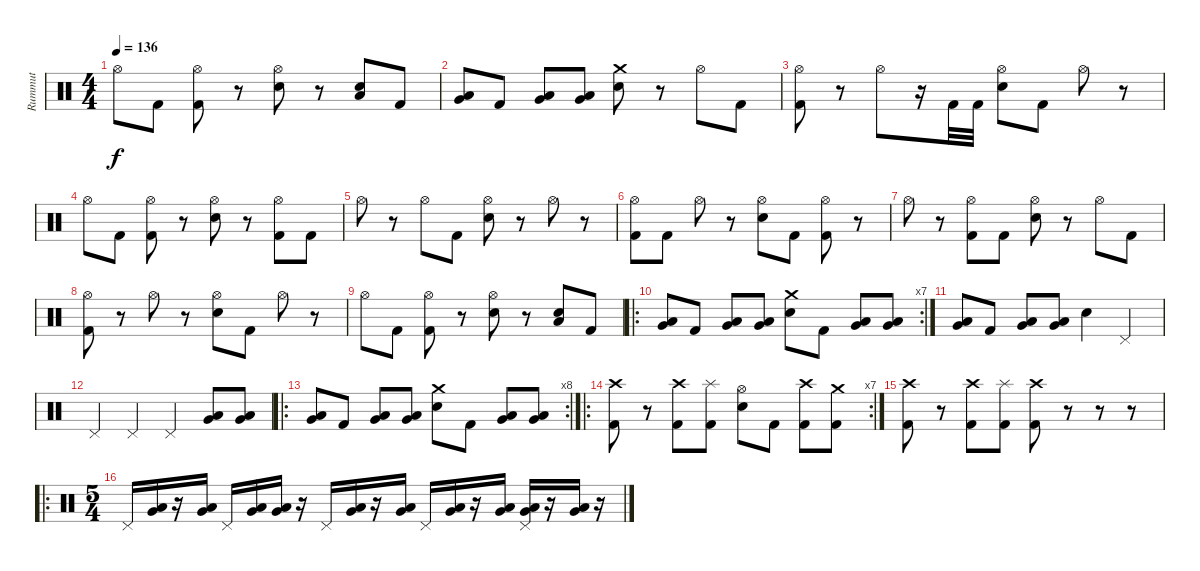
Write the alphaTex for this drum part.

\track ("Rummut" "Rummut") {instrument percussion}
\staff {score}
\articulation defaults
\ts (4 4)
\tempo 136
\clef neutral
\ks c "Hi-Hat (open)".8{dy f} "Kick (hit) 2".8
("Hi-Hat (open)" "Kick (hit) 2").8 r.8 ("Hi-Hat (open)" "Electric Snare (hit)").8 r.8 ("Low Floor Tom (hit)" "Electric Snare (hit)").8 "Kick (hit) 2".8 |
("Very Low Tom (hit)" "Low Floor Tom (hit)").8 "Kick (hit) 2".8 ("Very Low Tom (hit)" "Low Floor Tom (hit)").8 ("Very Low Tom (hit)" "Low Floor Tom (hit)").8 ("Crash medium (hit)" "Electric Snare (hit)").8 r.8 "Hi-Hat (open)".8 "Kick (hit) 2".8 |
("Hi-Hat (open)" "Kick (hit) 2").8 r.8 "Hi-Hat (open)".8 r.16 "Kick (hit) 2".32 "Kick (hit) 2".32 ("Hi-Hat (open)" "Electric Snare (hit)").8 "Kick (hit) 2".8 "Hi-Hat (open)".8 r.8 |
"Hi-Hat (open)".8 "Kick (hit) 2".8 ("Hi-Hat (open)" "Kick (hit) 2").8 r.8 ("Hi-Hat (open)" "Electric Snare (hit)").8 r.8 ("Hi-Hat (open)" "Kick (hit) 2").8 "Kick (hit) 2".8 |
"Hi-Hat (open)".8 r.8 "Hi-Hat (open)".8 "Kick (hit) 2".8 ("Hi-Hat (open)" "Electric Snare (hit)").8 r.8 "Hi-Hat (open)".8 r.8 |
("Hi-Hat (open)" "Kick (hit) 2").8 "Kick (hit) 2".8 "Hi-Hat (open)".8 r.8 ("Hi-Hat (open)" "Electric Snare (hit)").8 "Kick (hit) 2".8 ("Hi-Hat (open)" "Kick (hit) 2").8 r.8 |
"Hi-Hat (open)".8 r.8 ("Hi-Hat (open)" "Kick (hit) 2").8 "Kick (hit) 2".8 ("Hi-Hat (open)" "Electric Snare (hit)").8 r.8 "Hi-Hat (open)".8 "Kick (hit) 2".8 |
("Hi-Hat (open)" "Kick (hit) 2").8 r.8 "Hi-Hat (open)".8 r.8 ("Hi-Hat (open)" "Electric Snare (hit)").8 "Kick (hit) 2".8 "Hi-Hat (open)".8 r.8 |
"Hi-Hat (open)".8 "Kick (hit) 2".8 ("Hi-Hat (open)" "Kick (hit) 2").8 r.8 ("Hi-Hat (open)" "Electric Snare (hit)").8 r.8 ("Low Floor Tom (hit)" "Electric Snare (hit)").8 "Kick (hit) 2".8 |
\ro
\rc 7
("Very Low Tom (hit)" "Low Floor Tom (hit)").8 "Kick (hit) 2".8 ("Very Low Tom (hit)" "Low Floor Tom (hit)").8 ("Very Low Tom (hit)" "Low Floor Tom (hit)").8 ("Crash medium (hit)" "Electric Snare (hit)").8 "Kick (hit) 2".8 ("Very Low Tom (hit)" "Low Floor Tom (hit)").8 ("Very Low Tom (hit)" "Low Floor Tom (hit)").8 |
("Very Low Tom (hit)" "Low Floor Tom (hit)").8 "Kick (hit) 2".8 ("Very Low Tom (hit)" "Low Floor Tom (hit)").8 ("Very Low Tom (hit)" "Low Floor Tom (hit)").8 "Electric Snare (hit)".4 "Pedal Hi-Hat (hit)".4 |
"Pedal Hi-Hat (hit)".4 "Pedal Hi-Hat (hit)".4 "Pedal Hi-Hat (hit)".4 ("Very Low Tom (hit)" "Low Floor Tom (hit)").8 ("Very Low Tom (hit)" "Low Floor Tom (hit)").8 |
\ro
\rc 8
("Very Low Tom (hit)" "Low Floor Tom (hit)").8 "Kick (hit) 2".8 ("Very Low Tom (hit)" "Low Floor Tom (hit)").8 ("Very Low Tom (hit)" "Low Floor Tom (hit)").8 ("Crash medium (hit)" "Electric Snare (hit)").8 "Kick (hit) 2".8 ("Very Low Tom (hit)" "Low Floor Tom (hit)").8 ("Very Low Tom (hit)" "Low Floor Tom (hit)").8 |
\ro
\rc 7
("Crash high (hit)" "Kick (hit) 2").8 r.8 ("Crash high (hit)" "Kick (hit) 2").8 ("Splash (hit)" "Kick (hit) 2").8 ("Hi-Hat (open)" "Electric Snare (hit)").8 "Kick (hit) 2".8 ("Crash high (hit)" "Kick (hit) 2").8 ("Crash medium (hit)" "Kick (hit) 2").8 |
("Crash high (hit)" "Kick (hit) 2").8 r.8 ("Crash high (hit)" "Kick (hit) 2").8 ("Splash (hit)" "Kick (hit) 2").8 ("Crash high (hit)" "Kick (hit) 2").8 r.8 r.8 r.8 |
\ro
\ts (5 4)
"Pedal Hi-Hat (hit)".16 ("Very Low Tom (hit)" "Low Floor Tom (hit)").16 r.16 ("Very Low Tom (hit)" "Low Floor Tom (hit)").16 "Pedal Hi-Hat (hit)".16 ("Very Low Tom (hit)" "Low Floor Tom (hit)").16 ("Very Low Tom (hit)" "Low Floor Tom (hit)").16 r.16 "Pedal Hi-Hat (hit)".16 ("Very Low Tom (hit)" "Low Floor Tom (hit)").16 r.16 ("Very Low Tom (hit)" "Low Floor Tom (hit)").16 "Pedal Hi-Hat (hit)".16 ("Very Low Tom (hit)" "Low Floor Tom (hit)").16 r.16 ("Very Low Tom (hit)" "Low Floor Tom (hit)").16 ("Pedal Hi-Hat (hit)" "Very Low Tom (hit)" "Low Floor Tom (hit)").16 r.16 ("Very Low Tom (hit)" "Low Floor Tom (hit)").16 r.16
